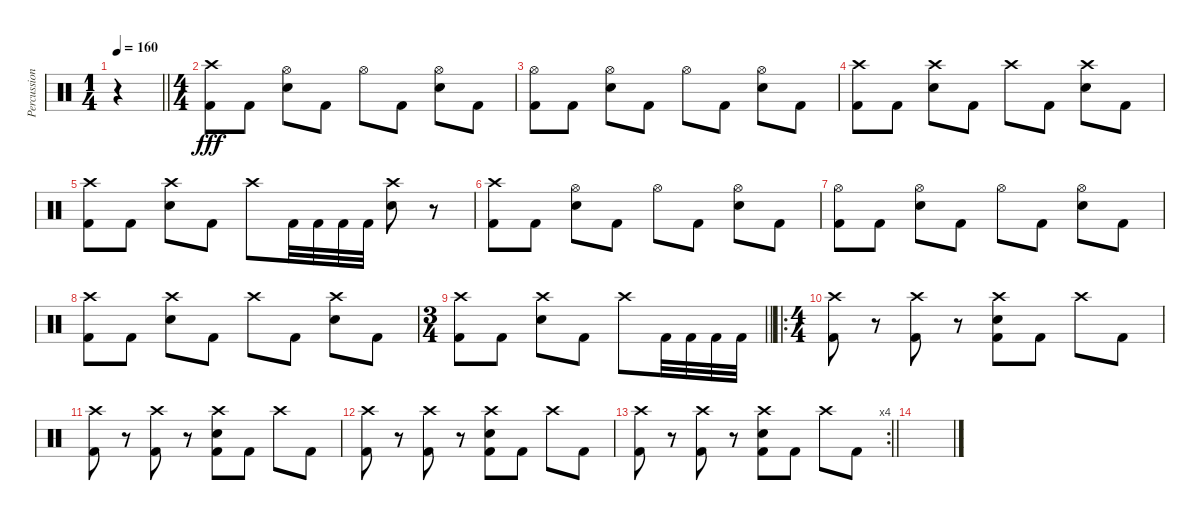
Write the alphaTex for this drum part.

\track ("Percussion" "Percussion") {instrument percussion}
\staff {score}
\articulation defaults
\ts (1 4)
\tempo 160
\clef neutral
\barLineRight lightlight
\ks c
r.4{dy fff} |
\ts (4 4)
\section ("" "")
("Crash high (hit)" "Kick (hit) 2").8 "Kick (hit) 2".8 ("Hi-Hat (open)" "Snare (hit) 2").8 "Kick (hit) 2".8 "Hi-Hat (open)".8 "Kick (hit) 2".8 ("Hi-Hat (open)" "Snare (hit) 2").8 "Kick (hit) 2".8 |
("Hi-Hat (open)" "Kick (hit) 2").8 "Kick (hit) 2".8 ("Hi-Hat (open)" "Snare (hit) 2").8 "Kick (hit) 2".8 "Hi-Hat (open)".8 "Kick (hit) 2".8 ("Hi-Hat (open)" "Snare (hit) 2").8 "Kick (hit) 2".8 |
("Crash high (hit)" "Kick (hit) 2").8 "Kick (hit) 2".8 ("Crash high (hit)" "Snare (hit) 2").8 "Kick (hit) 2".8 "Crash high (hit)".8 "Kick (hit) 2".8 ("Crash high (hit)" "Snare (hit) 2").8 "Kick (hit) 2".8 |
("Crash high (hit)" "Kick (hit) 2").8 "Kick (hit) 2".8 ("Crash high (hit)" "Snare (hit) 2").8 "Kick (hit) 2".8 "Crash high (hit)".8 "Kick (hit) 2".32 "Kick (hit) 2".32 "Kick (hit) 2".32 "Kick (hit) 2".32 ("Crash high (hit)" "Snare (hit) 2").8 r.8 |
("Crash high (hit)" "Kick (hit) 2").8 "Kick (hit) 2".8 ("Hi-Hat (open)" "Snare (hit) 2").8 "Kick (hit) 2".8 "Hi-Hat (open)".8 "Kick (hit) 2".8 ("Hi-Hat (open)" "Snare (hit) 2").8 "Kick (hit) 2".8 |
("Hi-Hat (open)" "Kick (hit) 2").8 "Kick (hit) 2".8 ("Hi-Hat (open)" "Snare (hit) 2").8 "Kick (hit) 2".8 "Hi-Hat (open)".8 "Kick (hit) 2".8 ("Hi-Hat (open)" "Snare (hit) 2").8 "Kick (hit) 2".8 |
("Crash high (hit)" "Kick (hit) 2").8 "Kick (hit) 2".8 ("Crash high (hit)" "Snare (hit) 2").8 "Kick (hit) 2".8 "Crash high (hit)".8 "Kick (hit) 2".8 ("Crash high (hit)" "Snare (hit) 2").8 "Kick (hit) 2".8 |
\ts (3 4)
\barLineRight lightlight
("Crash high (hit)" "Kick (hit) 2").8 "Kick (hit) 2".8 ("Crash high (hit)" "Snare (hit) 2").8 "Kick (hit) 2".8 "Crash high (hit)".8 "Kick (hit) 2".32 "Kick (hit) 2".32 "Kick (hit) 2".32 "Kick (hit) 2".32 |
\ro
\ts (4 4)
\section ("" "")
("Crash high (hit)" "Kick (hit) 2").8 r.8 ("Crash high (hit)" "Kick (hit) 2").8 r.8 ("Crash high (hit)" "Snare (hit) 2" "Kick (hit) 2").8 "Kick (hit) 2".8 "Crash high (hit)".8 "Kick (hit) 2".8 |
("Crash high (hit)" "Kick (hit) 2").8 r.8 ("Crash high (hit)" "Kick (hit) 2").8 r.8 ("Crash high (hit)" "Snare (hit) 2" "Kick (hit) 2").8 "Kick (hit) 2".8 "Crash high (hit)".8 "Kick (hit) 2".8 |
("Crash high (hit)" "Kick (hit) 2").8 r.8 ("Crash high (hit)" "Kick (hit) 2").8 r.8 ("Crash high (hit)" "Snare (hit) 2" "Kick (hit) 2").8 "Kick (hit) 2".8 "Crash high (hit)".8 "Kick (hit) 2".8 |
\rc 4
\barLineRight lightlight
("Crash high (hit)" "Kick (hit) 2").8 r.8 ("Crash high (hit)" "Kick (hit) 2").8 r.8 ("Crash high (hit)" "Snare (hit) 2" "Kick (hit) 2").8 "Kick (hit) 2".8 "Crash high (hit)".8 "Kick (hit) 2".8 |
\section ("" "")
